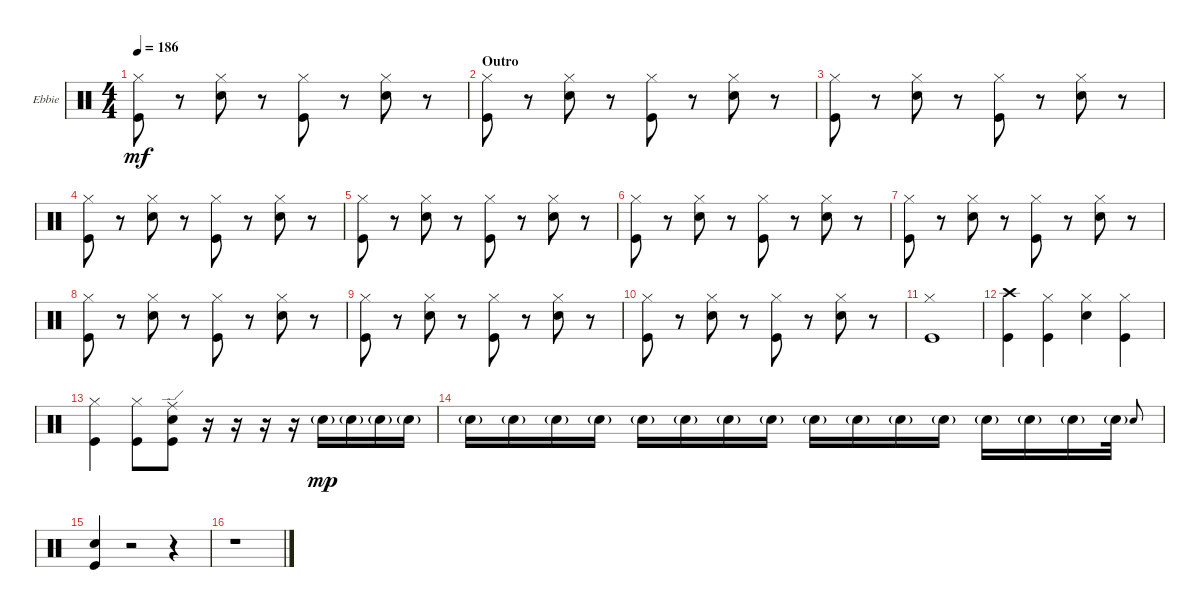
\defaultSystemsLayout 4
\bracketExtendMode groupsimilarinstruments
\firstSystemTrackNameOrientation horizontal
\otherSystemsTrackNameOrientation horizontal
\track ("Ebbie Hardy" "Ebbie") {instrument percussion}
\staff {score}
\articulation defaults
\ts (4 4)
\tempo 186
\clef neutral
\scale
0.333333
\ks c
("Hi-Hat (closed)" "Kick (hit)").8{dy mf} r.8 ("Hi-Hat (closed)" "Snare (hit) 2").8 r.8 ("Hi-Hat (closed)" "Kick (hit)").8 r.8 ("Hi-Hat (closed)" "Snare (hit) 2").8 r.8 |
\section ("" "Outro")
\scale
0.333333 ("Hi-Hat (closed)" "Kick (hit)").8 r.8 ("Hi-Hat (closed)" "Snare (hit) 2").8 r.8 ("Hi-Hat (closed)" "Kick (hit)").8 r.8 ("Hi-Hat (closed)" "Snare (hit) 2").8 r.8 |
\scale
0.333333 ("Hi-Hat (closed)" "Kick (hit)").8 r.8 ("Hi-Hat (closed)" "Snare (hit) 2").8 r.8 ("Hi-Hat (closed)" "Kick (hit)").8 r.8 ("Hi-Hat (closed)" "Snare (hit) 2").8 r.8 |
\scale
0.333333 ("Hi-Hat (closed)" "Kick (hit)").8 r.8 ("Hi-Hat (closed)" "Snare (hit) 2").8 r.8 ("Hi-Hat (closed)" "Kick (hit)").8 r.8 ("Hi-Hat (closed)" "Snare (hit) 2").8 r.8 |
\scale
0.333333 ("Hi-Hat (closed)" "Kick (hit)").8 r.8 ("Hi-Hat (closed)" "Snare (hit) 2").8 r.8 ("Hi-Hat (closed)" "Kick (hit)").8 r.8 ("Hi-Hat (closed)" "Snare (hit) 2").8 r.8 |
\scale
0.333333 ("Hi-Hat (closed)" "Kick (hit)").8 r.8 ("Hi-Hat (closed)" "Snare (hit) 2").8 r.8 ("Hi-Hat (closed)" "Kick (hit)").8 r.8 ("Hi-Hat (closed)" "Snare (hit) 2").8 r.8 |
\scale
0.333333 ("Hi-Hat (closed)" "Kick (hit)").8 r.8 ("Hi-Hat (closed)" "Snare (hit) 2").8 r.8 ("Hi-Hat (closed)" "Kick (hit)").8 r.8 ("Hi-Hat (closed)" "Snare (hit) 2").8 r.8 |
\scale
0.333333 ("Hi-Hat (closed)" "Kick (hit)").8 r.8 ("Hi-Hat (closed)" "Snare (hit) 2").8 r.8 ("Hi-Hat (closed)" "Kick (hit)").8 r.8 ("Hi-Hat (closed)" "Snare (hit) 2").8 r.8 |
\scale
0.218391 ("Hi-Hat (closed)" "Kick (hit)").8 r.8 ("Hi-Hat (closed)" "Snare (hit) 2").8 r.8 ("Hi-Hat (closed)" "Kick (hit)").8 r.8 ("Hi-Hat (closed)" "Snare (hit) 2").8 r.8 |
\scale
0.390805 ("Hi-Hat (closed)" "Kick (hit)").8 r.8 ("Hi-Hat (closed)" "Snare (hit) 2").8 r.8 ("Hi-Hat (closed)" "Kick (hit)").8 r.8 ("Hi-Hat (closed)" "Snare (hit) 2").8 r.8 |
("Kick (hit)" "Hi-Hat (closed)").1 |
("Kick (hit)" "Crash high (hit)").4 ("Kick (hit)" "Hi-Hat (closed)").4 ("Snare (hit) 2" "Hi-Hat (closed)").4 ("Kick (hit)" "Hi-Hat (closed)").4 |
\scale
0.333333 ("Kick (hit)" "Hi-Hat (closed)").4 ("Kick (hit)" "Hi-Hat (closed)").8 ("Kick (hit)" "Snare (hit) 2" "Ride (edge)").8 r.16 r.16 r.16 r.16 "Snare (hit) 2"{g}.16{dy mp} "Snare (hit) 2"{g}.16 "Snare (hit) 2"{g}.16 "Snare (hit) 2"{g}.16 |
\scale
0.333333 "Snare (hit) 2"{g}.16 "Snare (hit) 2"{g}.16 "Snare (hit) 2"{g}.16 "Snare (hit) 2"{g}.16 "Snare (hit) 2"{g}.16 "Snare (hit) 2"{g}.16 "Snare (hit) 2"{g}.16 "Snare (hit) 2"{g}.16 "Snare (hit) 2"{g}.16 "Snare (hit) 2"{g}.16 "Snare (hit) 2"{g}.16 "Snare (hit) 2"{g}.16 "Snare (hit) 2"{g}.16 "Snare (hit) 2"{g}.16 "Snare (hit) 2"{g}.16 "Snare (hit) 2"{g}.32 "Snare (hit) 2".8{gr onbeat} |
\scale
0.333333 ("Kick (hit)" "Snare (hit) 2").4 r.2 r.4 |
r.1
